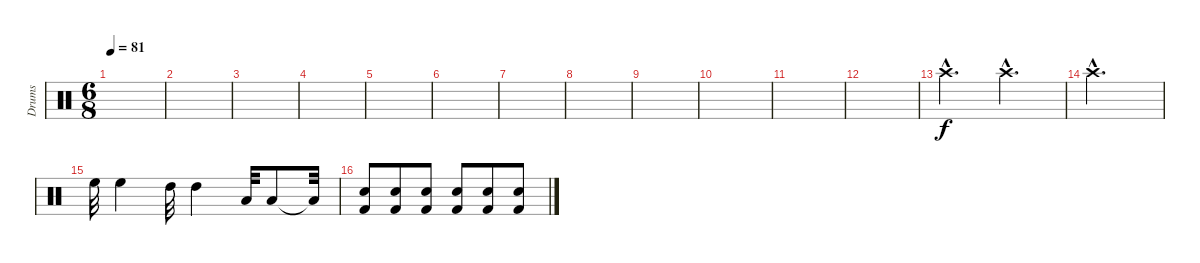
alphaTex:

\track ("Drums" "Drums") {instrument percussion}
\staff {score}
\articulation defaults
\ts (6 8)
\tempo 81
\clef neutral
\ks c
|
|
|
|
|
|
|
|
|
|
|
|
"Crash high (hit)"{hac}.4{d} "Crash high (hit)"{hac}.4{d} |
"Crash high (hit)"{hac}.2{d} |
"High Floor Tom (hit)".32 "High Floor Tom (hit)".4 "High Tom (hit)".32 "High Tom (hit)".4 "Low Tom (hit)".32 "Low Tom (hit)".8 "Low Tom (hit)"{t}.32 |
("Electric Snare (hit)" "Kick (hit) 2").8 ("Electric Snare (hit)" "Kick (hit) 2").8 ("Electric Snare (hit)" "Kick (hit) 2").8 ("Electric Snare (hit)" "Kick (hit) 2").8 ("Electric Snare (hit)" "Kick (hit) 2").8 ("Electric Snare (hit)" "Kick (hit) 2").8
